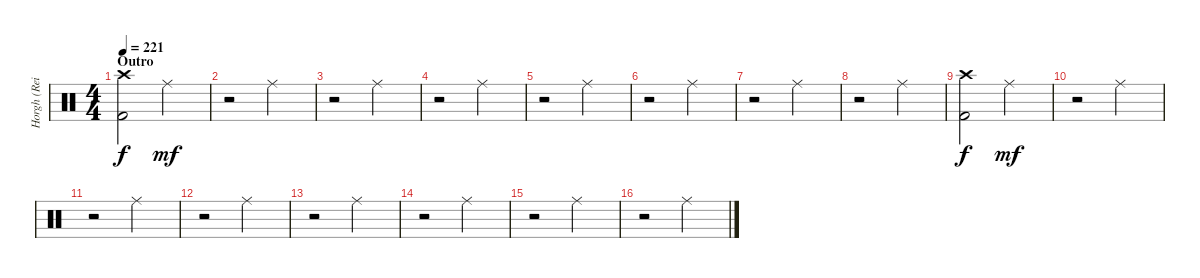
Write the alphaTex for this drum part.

\track ("Horgh (Reidar Horghagen)" "Horgh (Rei") {instrument percussion}
\staff {score}
\articulation defaults
\ts (4 4)
\section ("" "Outro")
\tempo 221
\clef neutral
\ks c
("Crash high (hit)" "Kick (hit) 2").2{dy f} "Ride (middle)".2{dy mf} |
r.2 "Ride (middle)".2 |
r.2 "Ride (middle)".2 |
r.2 "Ride (middle)".2 |
r.2 "Ride (middle)".2 |
r.2 "Ride (middle)".2 |
r.2 "Ride (middle)".2 |
r.2 "Ride (middle)".2 |
("Crash high (hit)" "Kick (hit) 2").2{dy f} "Ride (middle)".2{dy mf} |
r.2 "Ride (middle)".2 |
r.2 "Ride (middle)".2 |
r.2 "Ride (middle)".2 |
r.2 "Ride (middle)".2 |
r.2 "Ride (middle)".2 |
r.2 "Ride (middle)".2 |
r.2 "Ride (middle)".2
